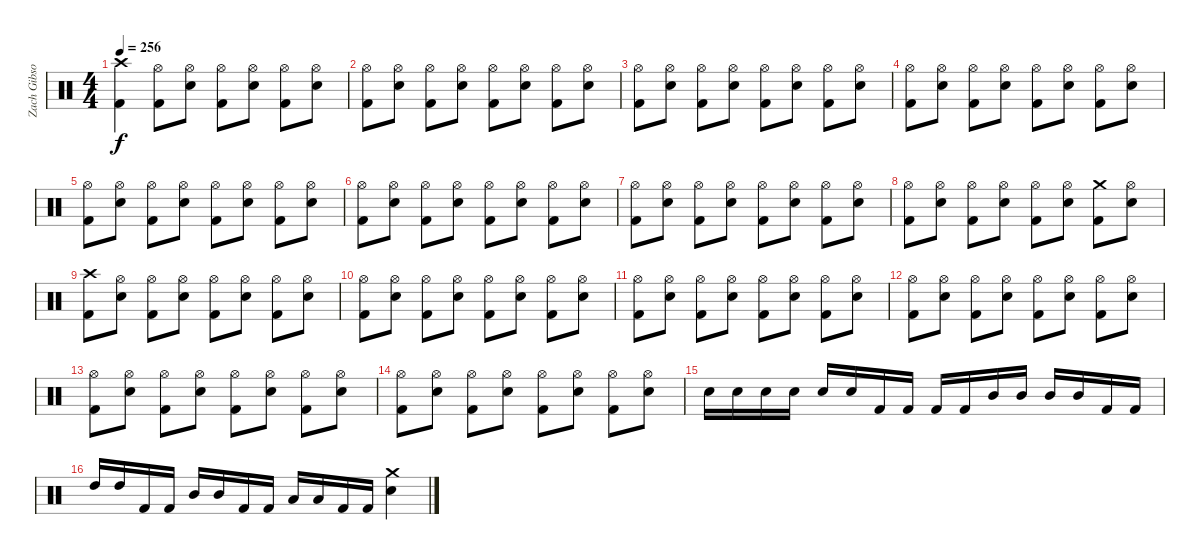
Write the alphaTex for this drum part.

\track ("Zach Gibson (Drums)" "Zach Gibso") {instrument percussion}
\staff {score}
\articulation defaults
\ts (4 4)
\tempo 256
\clef neutral
\ks c
("Crash high (hit)" "Kick (hit) 2").4{dy f} ("Hi-Hat (open)" "Kick (hit) 2").8 ("Hi-Hat (open)" "Snare (hit) 2").8 ("Hi-Hat (open)" "Kick (hit) 2").8 ("Hi-Hat (open)" "Snare (hit) 2").8 ("Hi-Hat (open)" "Kick (hit) 2").8 ("Hi-Hat (open)" "Snare (hit) 2").8 |
("Hi-Hat (open)" "Kick (hit) 2").8 ("Hi-Hat (open)" "Snare (hit) 2").8 ("Hi-Hat (open)" "Kick (hit) 2").8 ("Hi-Hat (open)" "Snare (hit) 2").8 ("Hi-Hat (open)" "Kick (hit) 2").8 ("Hi-Hat (open)" "Snare (hit) 2").8 ("Hi-Hat (open)" "Kick (hit) 2").8 ("Hi-Hat (open)" "Snare (hit) 2").8 |
("Hi-Hat (open)" "Kick (hit) 2").8 ("Hi-Hat (open)" "Snare (hit) 2").8 ("Hi-Hat (open)" "Kick (hit) 2").8 ("Hi-Hat (open)" "Snare (hit) 2").8 ("Hi-Hat (open)" "Kick (hit) 2").8 ("Hi-Hat (open)" "Snare (hit) 2").8 ("Hi-Hat (open)" "Kick (hit) 2").8 ("Hi-Hat (open)" "Snare (hit) 2").8 |
("Hi-Hat (open)" "Kick (hit) 2").8 ("Hi-Hat (open)" "Snare (hit) 2").8 ("Hi-Hat (open)" "Kick (hit) 2").8 ("Hi-Hat (open)" "Snare (hit) 2").8 ("Hi-Hat (open)" "Kick (hit) 2").8 ("Hi-Hat (open)" "Snare (hit) 2").8 ("Hi-Hat (open)" "Kick (hit) 2").8 ("Hi-Hat (open)" "Snare (hit) 2").8 |
("Hi-Hat (open)" "Kick (hit) 2").8 ("Hi-Hat (open)" "Snare (hit) 2").8 ("Hi-Hat (open)" "Kick (hit) 2").8 ("Hi-Hat (open)" "Snare (hit) 2").8 ("Hi-Hat (open)" "Kick (hit) 2").8 ("Hi-Hat (open)" "Snare (hit) 2").8 ("Hi-Hat (open)" "Kick (hit) 2").8 ("Hi-Hat (open)" "Snare (hit) 2").8 |
("Hi-Hat (open)" "Kick (hit) 2").8 ("Hi-Hat (open)" "Snare (hit) 2").8 ("Hi-Hat (open)" "Kick (hit) 2").8 ("Hi-Hat (open)" "Snare (hit) 2").8 ("Hi-Hat (open)" "Kick (hit) 2").8 ("Hi-Hat (open)" "Snare (hit) 2").8 ("Hi-Hat (open)" "Kick (hit) 2").8 ("Hi-Hat (open)" "Snare (hit) 2").8 |
("Hi-Hat (open)" "Kick (hit) 2").8 ("Hi-Hat (open)" "Snare (hit) 2").8 ("Hi-Hat (open)" "Kick (hit) 2").8 ("Hi-Hat (open)" "Snare (hit) 2").8 ("Hi-Hat (open)" "Kick (hit) 2").8 ("Hi-Hat (open)" "Snare (hit) 2").8 ("Hi-Hat (open)" "Kick (hit) 2").8 ("Hi-Hat (open)" "Snare (hit) 2").8 |
("Hi-Hat (open)" "Kick (hit) 2").8 ("Hi-Hat (open)" "Snare (hit) 2").8 ("Hi-Hat (open)" "Kick (hit) 2").8 ("Hi-Hat (open)" "Snare (hit) 2").8 ("Hi-Hat (open)" "Kick (hit) 2").8 ("Hi-Hat (open)" "Snare (hit) 2").8 ("Crash medium (hit)" "Kick (hit) 2").8 ("Hi-Hat (open)" "Snare (hit) 2").8 |
("Crash high (hit)" "Kick (hit) 2").8 ("Hi-Hat (open)" "Snare (hit) 2").8 ("Hi-Hat (open)" "Kick (hit) 2").8 ("Hi-Hat (open)" "Snare (hit) 2").8 ("Hi-Hat (open)" "Kick (hit) 2").8 ("Hi-Hat (open)" "Snare (hit) 2").8 ("Hi-Hat (open)" "Kick (hit) 2").8 ("Hi-Hat (open)" "Snare (hit) 2").8 |
("Hi-Hat (open)" "Kick (hit) 2").8 ("Hi-Hat (open)" "Snare (hit) 2").8 ("Hi-Hat (open)" "Kick (hit) 2").8 ("Hi-Hat (open)" "Snare (hit) 2").8 ("Hi-Hat (open)" "Kick (hit) 2").8 ("Hi-Hat (open)" "Snare (hit) 2").8 ("Hi-Hat (open)" "Kick (hit) 2").8 ("Hi-Hat (open)" "Snare (hit) 2").8 |
("Hi-Hat (open)" "Kick (hit) 2").8 ("Hi-Hat (open)" "Snare (hit) 2").8 ("Hi-Hat (open)" "Kick (hit) 2").8 ("Hi-Hat (open)" "Snare (hit) 2").8 ("Hi-Hat (open)" "Kick (hit) 2").8 ("Hi-Hat (open)" "Snare (hit) 2").8 ("Hi-Hat (open)" "Kick (hit) 2").8 ("Hi-Hat (open)" "Snare (hit) 2").8 |
("Hi-Hat (open)" "Kick (hit) 2").8 ("Hi-Hat (open)" "Snare (hit) 2").8 ("Hi-Hat (open)" "Kick (hit) 2").8 ("Hi-Hat (open)" "Snare (hit) 2").8 ("Hi-Hat (open)" "Kick (hit) 2").8 ("Hi-Hat (open)" "Snare (hit) 2").8 ("Hi-Hat (open)" "Kick (hit) 2").8 ("Hi-Hat (open)" "Snare (hit) 2").8 |
("Hi-Hat (open)" "Kick (hit) 2").8 ("Hi-Hat (open)" "Snare (hit) 2").8 ("Hi-Hat (open)" "Kick (hit) 2").8 ("Hi-Hat (open)" "Snare (hit) 2").8 ("Hi-Hat (open)" "Kick (hit) 2").8 ("Hi-Hat (open)" "Snare (hit) 2").8 ("Hi-Hat (open)" "Kick (hit) 2").8 ("Hi-Hat (open)" "Snare (hit) 2").8 |
("Hi-Hat (open)" "Kick (hit) 2").8 ("Hi-Hat (open)" "Snare (hit) 2").8 ("Hi-Hat (open)" "Kick (hit) 2").8 ("Hi-Hat (open)" "Snare (hit) 2").8 ("Hi-Hat (open)" "Kick (hit) 2").8 ("Hi-Hat (open)" "Snare (hit) 2").8 ("Hi-Hat (open)" "Kick (hit) 2").8 ("Hi-Hat (open)" "Snare (hit) 2").8 |
"Snare (hit) 2".16 "Snare (hit) 2".16 "Snare (hit) 2".16 "Snare (hit) 2".16 "Snare (hit) 2".16 "Snare (hit) 2".16 "Kick (hit) 2".16 "Kick (hit) 2".16 "Kick (hit) 2".16 "Kick (hit) 2".16 "Mid Tom (hit)".16 "Mid Tom (hit)".16 "Mid Tom (hit)".16 "Mid Tom (hit)".16 "Kick (hit) 2".16 "Kick (hit) 2".16 |
"High Tom (hit)".16 "High Tom (hit)".16 "Kick (hit) 2".16 "Kick (hit) 2".16 "Mid Tom (hit)".16 "Mid Tom (hit)".16 "Kick (hit) 2".16 "Kick (hit) 2".16 "Low Tom (hit)".16 "Low Tom (hit)".16 "Kick (hit) 2".16 "Kick (hit) 2".16 ("Crash medium (hit)" "Snare (hit) 2").4
